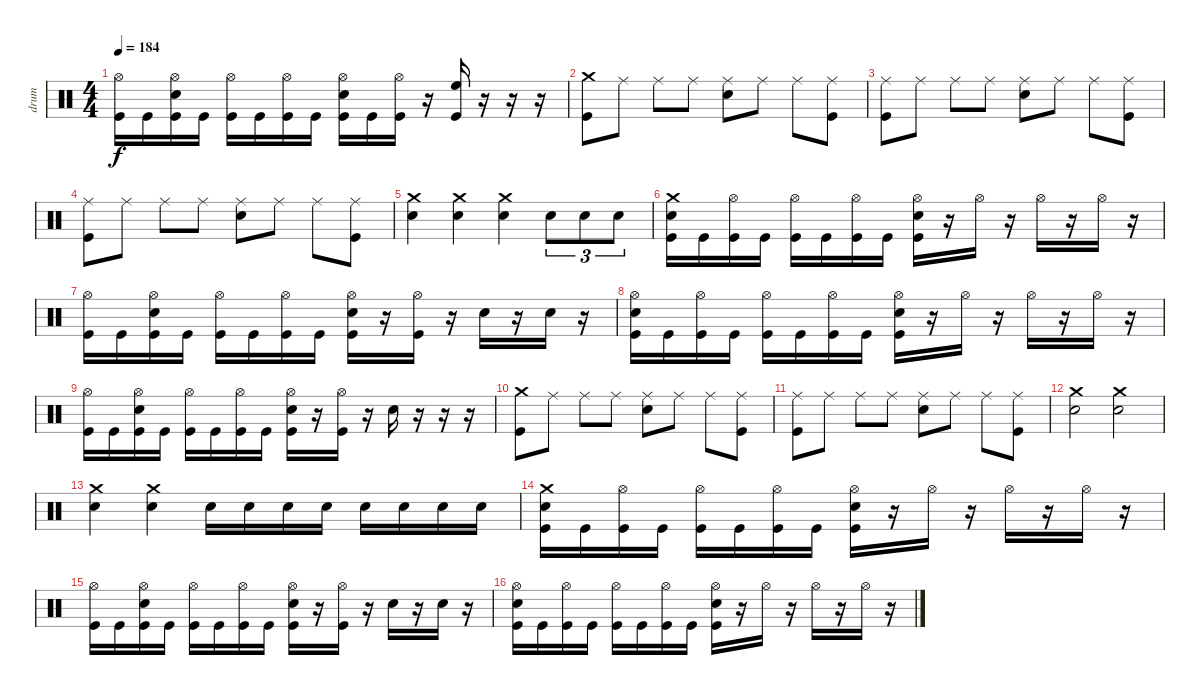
\track ("drum" "drum") {instrument percussion}
\staff {score}
\articulation defaults
\ts (4 4)
\tempo 184
\clef neutral
\ks c
("Hi-Hat (open)" "Kick (hit)").16{dy f} "Kick (hit)".16 ("Hi-Hat (open)" "Electric Snare (hit)" "Kick (hit)").16 "Kick (hit)".16 ("Hi-Hat (open)" "Kick (hit)").16 "Kick (hit)".16 ("Hi-Hat (open)" "Kick (hit)").16 "Kick (hit)".16 ("Hi-Hat (open)" "Electric Snare (hit)" "Kick (hit)").16 "Kick (hit)".16 ("Hi-Hat (open)" "Kick (hit)").16 r.16 ("High Floor Tom (hit)" "Kick (hit)").16 r.16 r.16 r.16 |
("Crash medium (hit)" "Kick (hit)").8 "Ride (middle)".8 "Ride (middle)".8 "Ride (middle)".8 ("Ride (middle)" "Electric Snare (hit)").8 "Ride (middle)".8 "Ride (middle)".8 ("Ride (middle)" "Kick (hit)").8 |
("Ride (middle)" "Kick (hit)").8 "Ride (middle)".8 "Ride (middle)".8 "Ride (middle)".8 ("Ride (middle)" "Electric Snare (hit)").8 "Ride (middle)".8 "Ride (middle)".8 ("Ride (middle)" "Kick (hit)").8 |
("Ride (middle)" "Kick (hit)").8 "Ride (middle)".8 "Ride (middle)".8 "Ride (middle)".8 ("Ride (middle)" "Electric Snare (hit)").8 "Ride (middle)".8 "Ride (middle)".8 ("Ride (middle)" "Kick (hit)").8 |
("Crash medium (hit)" "Electric Snare (hit)").4 ("Crash medium (hit)" "Electric Snare (hit)").4 ("Crash medium (hit)" "Electric Snare (hit)").4 "Electric Snare (hit)".8{tu (3 2)} "Electric Snare (hit)".8{tu (3 2)} "Electric Snare (hit)".8{tu (3 2)} |
("Crash medium (hit)" "Electric Snare (hit)" "Kick (hit)").16 "Kick (hit)".16 ("Hi-Hat (open)" "Kick (hit)").16 "Kick (hit)".16 ("Hi-Hat (open)" "Kick (hit)").16 "Kick (hit)".16 ("Hi-Hat (open)" "Kick (hit)").16 "Kick (hit)".16 ("Hi-Hat (open)" "Electric Snare (hit)" "Kick (hit)").16 r.16 "Hi-Hat (open)".16 r.16 "Hi-Hat (open)".16 r.16 "Hi-Hat (open)".16 r.16 |
("Hi-Hat (open)" "Kick (hit)").16 "Kick (hit)".16 ("Hi-Hat (open)" "Electric Snare (hit)" "Kick (hit)").16 "Kick (hit)".16 ("Hi-Hat (open)" "Kick (hit)").16 "Kick (hit)".16 ("Hi-Hat (open)" "Kick (hit)").16 "Kick (hit)".16 ("Hi-Hat (open)" "Electric Snare (hit)" "Kick (hit)").16 r.16 ("Hi-Hat (open)" "Kick (hit)").16 r.16 "Electric Snare (hit)".16 r.16 "Electric Snare (hit)".16 r.16 |
("Hi-Hat (open)" "Electric Snare (hit)" "Kick (hit)").16 "Kick (hit)".16 ("Hi-Hat (open)" "Kick (hit)").16 "Kick (hit)".16 ("Hi-Hat (open)" "Kick (hit)").16 "Kick (hit)".16 ("Hi-Hat (open)" "Kick (hit)").16 "Kick (hit)".16 ("Hi-Hat (open)" "Electric Snare (hit)" "Kick (hit)").16 r.16 "Hi-Hat (open)".16 r.16 "Hi-Hat (open)".16 r.16 "Hi-Hat (open)".16 r.16 |
("Hi-Hat (open)" "Kick (hit)").16 "Kick (hit)".16 ("Hi-Hat (open)" "Electric Snare (hit)" "Kick (hit)").16 "Kick (hit)".16 ("Hi-Hat (open)" "Kick (hit)").16 "Kick (hit)".16 ("Hi-Hat (open)" "Kick (hit)").16 "Kick (hit)".16 ("Hi-Hat (open)" "Electric Snare (hit)" "Kick (hit)").16 r.16 ("Hi-Hat (open)" "Kick (hit)").16 r.16 "Electric Snare (hit)".16 r.16 r.16 r.16 |
("Crash medium (hit)" "Kick (hit)").8 "Ride (middle)".8 "Ride (middle)".8 "Ride (middle)".8 ("Ride (middle)" "Electric Snare (hit)").8 "Ride (middle)".8 "Ride (middle)".8 ("Ride (middle)" "Kick (hit)").8 |
("Ride (middle)" "Kick (hit)").8 "Ride (middle)".8 "Ride (middle)".8 "Ride (middle)".8 ("Ride (middle)" "Electric Snare (hit)").8 "Ride (middle)".8 "Ride (middle)".8 ("Ride (middle)" "Kick (hit)").8 |
("Crash medium (hit)" "Electric Snare (hit)").2 ("Crash medium (hit)" "Electric Snare (hit)").2 |
("Crash medium (hit)" "Electric Snare (hit)").4 ("Crash medium (hit)" "Electric Snare (hit)").4 "Electric Snare (hit)".16 "Electric Snare (hit)".16 "Electric Snare (hit)".16 "Electric Snare (hit)".16 "Electric Snare (hit)".16 "Electric Snare (hit)".16 "Electric Snare (hit)".16 "Electric Snare (hit)".16 |
("Crash medium (hit)" "Electric Snare (hit)" "Kick (hit)").16 "Kick (hit)".16 ("Hi-Hat (open)" "Kick (hit)").16 "Kick (hit)".16 ("Hi-Hat (open)" "Kick (hit)").16 "Kick (hit)".16 ("Hi-Hat (open)" "Kick (hit)").16 "Kick (hit)".16 ("Hi-Hat (open)" "Electric Snare (hit)" "Kick (hit)").16 r.16 "Hi-Hat (open)".16 r.16 "Hi-Hat (open)".16 r.16 "Hi-Hat (open)".16 r.16 |
("Hi-Hat (open)" "Kick (hit)").16 "Kick (hit)".16 ("Hi-Hat (open)" "Electric Snare (hit)" "Kick (hit)").16 "Kick (hit)".16 ("Hi-Hat (open)" "Kick (hit)").16 "Kick (hit)".16 ("Hi-Hat (open)" "Kick (hit)").16 "Kick (hit)".16 ("Hi-Hat (open)" "Electric Snare (hit)" "Kick (hit)").16 r.16 ("Hi-Hat (open)" "Kick (hit)").16 r.16 "Electric Snare (hit)".16 r.16 "Electric Snare (hit)".16 r.16 |
("Hi-Hat (open)" "Electric Snare (hit)" "Kick (hit)").16 "Kick (hit)".16 ("Hi-Hat (open)" "Kick (hit)").16 "Kick (hit)".16 ("Hi-Hat (open)" "Kick (hit)").16 "Kick (hit)".16 ("Hi-Hat (open)" "Kick (hit)").16 "Kick (hit)".16 ("Hi-Hat (open)" "Electric Snare (hit)" "Kick (hit)").16 r.16 "Hi-Hat (open)".16 r.16 "Hi-Hat (open)".16 r.16 "Hi-Hat (open)".16 r.16
